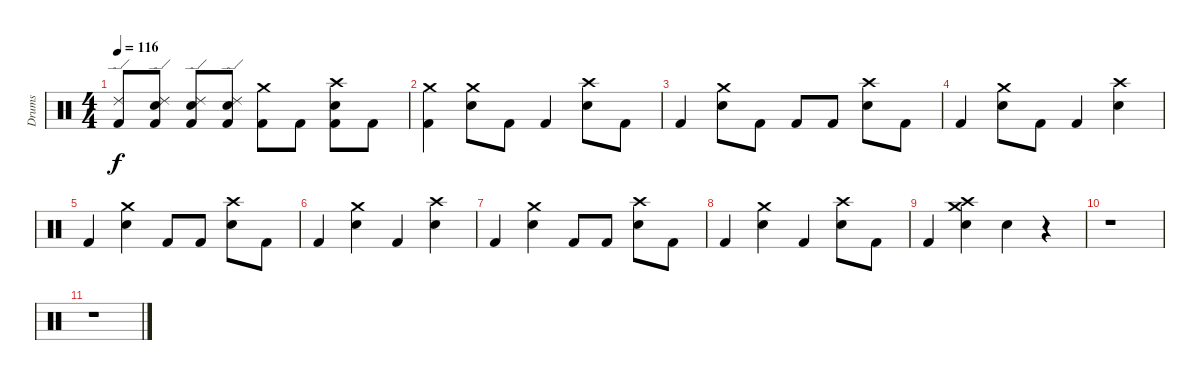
\track ("Drums" "Drums") {instrument percussion}
\staff {score}
\articulation defaults
\ts (4 4)
\tempo 116
\clef neutral
\ks c
("Kick (hit) 2" "Ride (edge) 2").8{dy f} ("Kick (hit) 2" "Electric Snare (hit)" "Ride (edge) 2").8 ("Kick (hit) 2" "Electric Snare (hit)" "Ride (edge) 2").8 ("Kick (hit) 2" "Electric Snare (hit)" "Ride (edge) 2").8 ("Kick (hit) 2" "Crash medium (hit)").8 "Kick (hit) 2".8 ("Kick (hit) 2" "Electric Snare (hit)" "Crash high (hit)").8 "Kick (hit) 2".8 |
("Kick (hit) 2" "Crash medium (hit)").4 ("Electric Snare (hit)" "Crash medium (hit)").8 "Kick (hit) 2".8 "Kick (hit) 2".4 ("Electric Snare (hit)" "Crash high (hit)").8 "Kick (hit) 2".8 |
"Kick (hit) 2".4 ("Electric Snare (hit)" "Crash medium (hit)").8 "Kick (hit) 2".8 "Kick (hit) 2".8 "Kick (hit) 2".8 ("Electric Snare (hit)" "Crash high (hit)").8 "Kick (hit) 2".8 |
"Kick (hit) 2".4 ("Electric Snare (hit)" "Crash medium (hit)").8 "Kick (hit) 2".8 "Kick (hit) 2".4 ("Electric Snare (hit)" "Crash high (hit)").4 |
"Kick (hit) 2".4 ("Electric Snare (hit)" "Crash medium (hit)").4 "Kick (hit) 2".8 "Kick (hit) 2".8 ("Electric Snare (hit)" "Crash high (hit)").8 "Kick (hit) 2".8 |
"Kick (hit) 2".4 ("Electric Snare (hit)" "Crash medium (hit)").4 "Kick (hit) 2".4 ("Electric Snare (hit)" "Crash high (hit)").4 |
"Kick (hit) 2".4 ("Electric Snare (hit)" "Crash medium (hit)").4 "Kick (hit) 2".8 "Kick (hit) 2".8 ("Electric Snare (hit)" "Crash high (hit)").8 "Kick (hit) 2".8 |
"Kick (hit) 2".4 ("Electric Snare (hit)" "Crash medium (hit)").4 "Kick (hit) 2".4 ("Electric Snare (hit)" "Crash high (hit)").8 "Kick (hit) 2".8 |
"Kick (hit) 2".4 ("Electric Snare (hit)" "Crash high (hit)" "Crash medium (hit)").4 "Electric Snare (hit)".4 r.4 |
r.1 |
r.1
